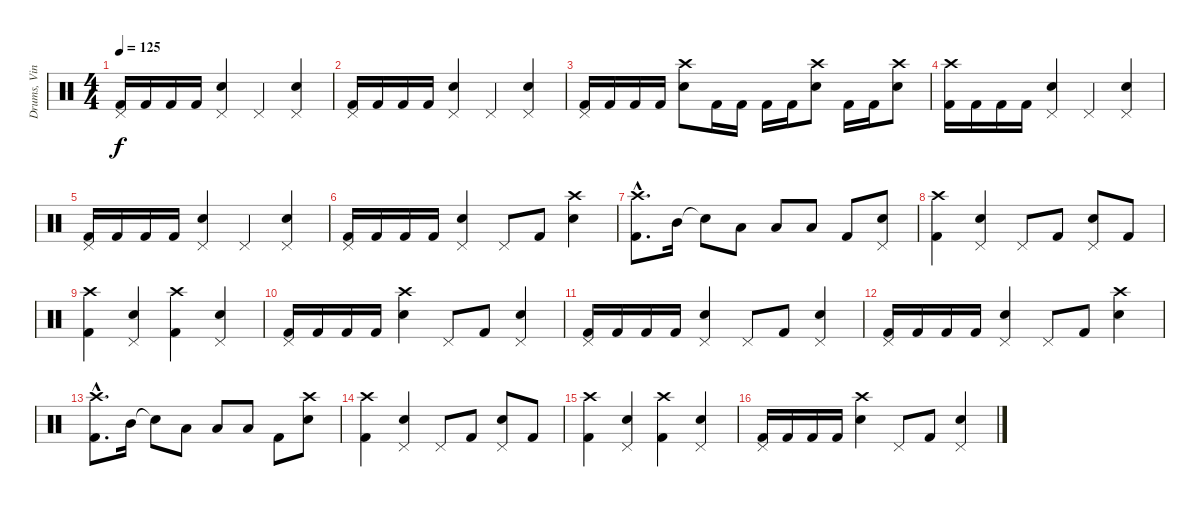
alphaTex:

\track ("Drums, Vinnie" "Drums, Vin") {instrument percussion}
\staff {score}
\articulation defaults
\ts (4 4)
\tempo 125
\clef neutral
\ks c
("Pedal Hi-Hat (hit)" "Kick (hit) 2").16{dy f} "Kick (hit) 2".16 "Kick (hit) 2".16 "Kick (hit) 2".16 ("Pedal Hi-Hat (hit)" "Electric Snare (hit)").4 "Pedal Hi-Hat (hit)".4 ("Pedal Hi-Hat (hit)" "Electric Snare (hit)").4 |
("Pedal Hi-Hat (hit)" "Kick (hit) 2").16 "Kick (hit) 2".16 "Kick (hit) 2".16 "Kick (hit) 2".16 ("Pedal Hi-Hat (hit)" "Electric Snare (hit)").4 "Pedal Hi-Hat (hit)".4 ("Pedal Hi-Hat (hit)" "Electric Snare (hit)").4 |
("Pedal Hi-Hat (hit)" "Kick (hit) 2").16 "Kick (hit) 2".16 "Kick (hit) 2".16 "Kick (hit) 2".16 ("Crash high (hit)" "Electric Snare (hit)").8 "Kick (hit) 2".16 "Kick (hit) 2".16 "Kick (hit) 2".16 "Kick (hit) 2".16 ("Crash high (hit)" "Electric Snare (hit)").8 "Kick (hit) 2".16 "Kick (hit) 2".16 ("Crash high (hit)" "Electric Snare (hit)").8 |
("Crash high (hit)" "Kick (hit) 2").16 "Kick (hit) 2".16 "Kick (hit) 2".16 "Kick (hit) 2".16 ("Pedal Hi-Hat (hit)" "Electric Snare (hit)").4 "Pedal Hi-Hat (hit)".4 ("Pedal Hi-Hat (hit)" "Electric Snare (hit)").4 |
("Pedal Hi-Hat (hit)" "Kick (hit) 2").16 "Kick (hit) 2".16 "Kick (hit) 2".16 "Kick (hit) 2".16 ("Pedal Hi-Hat (hit)" "Electric Snare (hit)").4 "Pedal Hi-Hat (hit)".4 ("Pedal Hi-Hat (hit)" "Electric Snare (hit)").4 |
("Pedal Hi-Hat (hit)" "Kick (hit) 2").16 "Kick (hit) 2".16 "Kick (hit) 2".16 "Kick (hit) 2".16 ("Pedal Hi-Hat (hit)" "Electric Snare (hit)").4 "Pedal Hi-Hat (hit)".8 "Kick (hit) 2".8 ("Crash high (hit)" "Electric Snare (hit)").4 |
("Crash high (hit)"{hac} "Kick (hit) 2"{hac}).8{d} "Mid Tom (hit)".16 "Snare (hit)"{t}.8 "Low Tom (hit)".8 "Low Tom (hit)".8 "Low Tom (hit)".8 "Kick (hit) 2".8 ("Pedal Hi-Hat (hit)" "Electric Snare (hit)").8 |
("Crash high (hit)" "Kick (hit) 2").4 ("Pedal Hi-Hat (hit)" "Electric Snare (hit)").4 "Pedal Hi-Hat (hit)".8 "Kick (hit) 2".8 ("Pedal Hi-Hat (hit)" "Electric Snare (hit)").8 "Kick (hit) 2".8 |
("Crash high (hit)" "Kick (hit) 2").4 ("Pedal Hi-Hat (hit)" "Electric Snare (hit)").4 ("Crash high (hit)" "Kick (hit) 2").4 ("Pedal Hi-Hat (hit)" "Electric Snare (hit)").4 |
("Pedal Hi-Hat (hit)" "Kick (hit) 2").16 "Kick (hit) 2".16 "Kick (hit) 2".16 "Kick (hit) 2".16 ("Crash high (hit)" "Electric Snare (hit)").4 "Pedal Hi-Hat (hit)".8 "Kick (hit) 2".8 ("Pedal Hi-Hat (hit)" "Electric Snare (hit)").4 |
("Pedal Hi-Hat (hit)" "Kick (hit) 2").16 "Kick (hit) 2".16 "Kick (hit) 2".16 "Kick (hit) 2".16 ("Pedal Hi-Hat (hit)" "Electric Snare (hit)").4 "Pedal Hi-Hat (hit)".8 "Kick (hit) 2".8 ("Pedal Hi-Hat (hit)" "Electric Snare (hit)").4 |
("Pedal Hi-Hat (hit)" "Kick (hit) 2").16 "Kick (hit) 2".16 "Kick (hit) 2".16 "Kick (hit) 2".16 ("Pedal Hi-Hat (hit)" "Electric Snare (hit)").4 "Pedal Hi-Hat (hit)".8 "Kick (hit) 2".8 ("Crash high (hit)" "Electric Snare (hit)").4 |
("Crash high (hit)"{hac} "Kick (hit) 2"{hac}).8{d} "Mid Tom (hit)".16 "Snare (hit)"{t}.8 "Low Tom (hit)".8 "Low Tom (hit)".8 "Low Tom (hit)".8 "Kick (hit) 2".8 ("Crash high (hit)" "Electric Snare (hit)").8 |
("Crash high (hit)" "Kick (hit) 2").4 ("Pedal Hi-Hat (hit)" "Electric Snare (hit)").4 "Pedal Hi-Hat (hit)".8 "Kick (hit) 2".8 ("Pedal Hi-Hat (hit)" "Electric Snare (hit)").8 "Kick (hit) 2".8 |
("Crash high (hit)" "Kick (hit) 2").4 ("Pedal Hi-Hat (hit)" "Electric Snare (hit)").4 ("Crash high (hit)" "Kick (hit) 2").4 ("Pedal Hi-Hat (hit)" "Electric Snare (hit)").4 |
("Pedal Hi-Hat (hit)" "Kick (hit) 2").16 "Kick (hit) 2".16 "Kick (hit) 2".16 "Kick (hit) 2".16 ("Crash high (hit)" "Electric Snare (hit)").4 "Pedal Hi-Hat (hit)".8 "Kick (hit) 2".8 ("Pedal Hi-Hat (hit)" "Electric Snare (hit)").4
